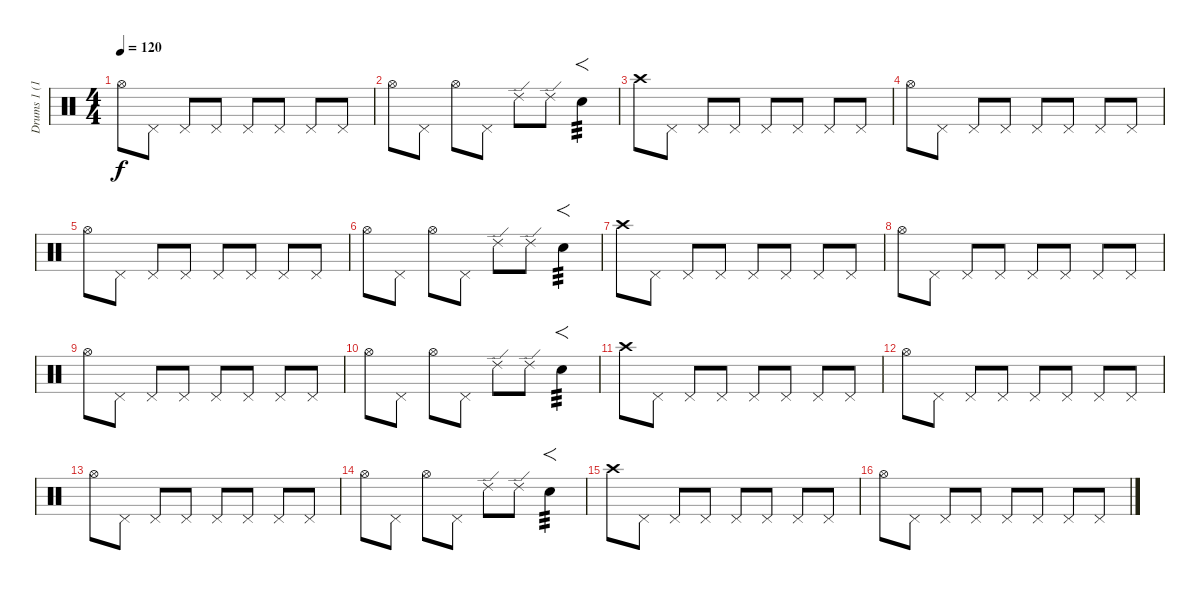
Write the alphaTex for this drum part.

\track ("Drums 1 (16)" "Drums 1 (1") {instrument percussion}
\staff {score}
\articulation defaults
\ts (4 4)
\tempo 120
\clef neutral
\ks c "Hi-Hat (open)".8{dy f} "Pedal Hi-Hat (hit)".8 "Pedal Hi-Hat (hit)".8 "Pedal Hi-Hat (hit)".8 "Pedal Hi-Hat (hit)".8 "Pedal Hi-Hat (hit)".8 "Pedal Hi-Hat (hit)".8 "Pedal Hi-Hat (hit)".8
|
"Hi-Hat (open)".8 "Pedal Hi-Hat (hit)".8 "Hi-Hat (open)".8 "Pedal Hi-Hat (hit)".8 "Ride (edge) 2".8 "Ride (edge) 2".8 "Snare (hit) 2".4{f tp 3} |
"Crash high (hit)".8{balance 0} "Pedal Hi-Hat (hit)".8 "Pedal Hi-Hat (hit)".8 "Pedal Hi-Hat (hit)".8 "Pedal Hi-Hat (hit)".8 "Pedal Hi-Hat (hit)".8 "Pedal Hi-Hat (hit)".8 "Pedal Hi-Hat (hit)".8 |
"Hi-Hat (open)".8 "Pedal Hi-Hat (hit)".8 "Pedal Hi-Hat (hit)".8 "Pedal Hi-Hat (hit)".8 "Pedal Hi-Hat (hit)".8 "Pedal Hi-Hat (hit)".8 "Pedal Hi-Hat (hit)".8 "Pedal Hi-Hat (hit)".8 |
"Hi-Hat (open)".8 "Pedal Hi-Hat (hit)".8 "Pedal Hi-Hat (hit)".8 "Pedal Hi-Hat (hit)".8 "Pedal Hi-Hat (hit)".8 "Pedal Hi-Hat (hit)".8 "Pedal Hi-Hat (hit)".8 "Pedal Hi-Hat (hit)".8 |
"Hi-Hat (open)".8 "Pedal Hi-Hat (hit)".8 "Hi-Hat (open)".8 "Pedal Hi-Hat (hit)".8 "Ride (edge) 2".8 "Ride (edge) 2".8 "Snare (hit) 2".4{f tp 3} |
"Crash high (hit)".8{balance 0} "Pedal Hi-Hat (hit)".8 "Pedal Hi-Hat (hit)".8 "Pedal Hi-Hat (hit)".8 "Pedal Hi-Hat (hit)".8 "Pedal Hi-Hat (hit)".8 "Pedal Hi-Hat (hit)".8 "Pedal Hi-Hat (hit)".8 |
"Hi-Hat (open)".8 "Pedal Hi-Hat (hit)".8 "Pedal Hi-Hat (hit)".8 "Pedal Hi-Hat (hit)".8 "Pedal Hi-Hat (hit)".8 "Pedal Hi-Hat (hit)".8 "Pedal Hi-Hat (hit)".8 "Pedal Hi-Hat (hit)".8 |
"Hi-Hat (open)".8 "Pedal Hi-Hat (hit)".8 "Pedal Hi-Hat (hit)".8 "Pedal Hi-Hat (hit)".8 "Pedal Hi-Hat (hit)".8 "Pedal Hi-Hat (hit)".8 "Pedal Hi-Hat (hit)".8 "Pedal Hi-Hat (hit)".8 |
"Hi-Hat (open)".8 "Pedal Hi-Hat (hit)".8 "Hi-Hat (open)".8 "Pedal Hi-Hat (hit)".8 "Ride (edge) 2".8 "Ride (edge) 2".8 "Snare (hit) 2".4{f tp 3} |
"Crash high (hit)".8{balance 0} "Pedal Hi-Hat (hit)".8 "Pedal Hi-Hat (hit)".8 "Pedal Hi-Hat (hit)".8 "Pedal Hi-Hat (hit)".8 "Pedal Hi-Hat (hit)".8 "Pedal Hi-Hat (hit)".8 "Pedal Hi-Hat (hit)".8 |
"Hi-Hat (open)".8 "Pedal Hi-Hat (hit)".8 "Pedal Hi-Hat (hit)".8 "Pedal Hi-Hat (hit)".8 "Pedal Hi-Hat (hit)".8 "Pedal Hi-Hat (hit)".8 "Pedal Hi-Hat (hit)".8 "Pedal Hi-Hat (hit)".8 |
"Hi-Hat (open)".8 "Pedal Hi-Hat (hit)".8 "Pedal Hi-Hat (hit)".8 "Pedal Hi-Hat (hit)".8 "Pedal Hi-Hat (hit)".8 "Pedal Hi-Hat (hit)".8 "Pedal Hi-Hat (hit)".8 "Pedal Hi-Hat (hit)".8 |
"Hi-Hat (open)".8 "Pedal Hi-Hat (hit)".8 "Hi-Hat (open)".8 "Pedal Hi-Hat (hit)".8 "Ride (edge) 2".8 "Ride (edge) 2".8 "Snare (hit) 2".4{f tp 3} |
"Crash high (hit)".8{balance 0} "Pedal Hi-Hat (hit)".8 "Pedal Hi-Hat (hit)".8 "Pedal Hi-Hat (hit)".8 "Pedal Hi-Hat (hit)".8 "Pedal Hi-Hat (hit)".8 "Pedal Hi-Hat (hit)".8 "Pedal Hi-Hat (hit)".8 |
"Hi-Hat (open)".8 "Pedal Hi-Hat (hit)".8 "Pedal Hi-Hat (hit)".8 "Pedal Hi-Hat (hit)".8 "Pedal Hi-Hat (hit)".8 "Pedal Hi-Hat (hit)".8 "Pedal Hi-Hat (hit)".8 "Pedal Hi-Hat (hit)".8
